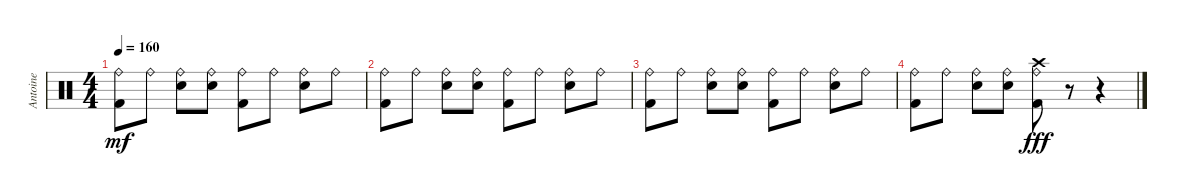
\track ("Antoine" "Antoine") {instrument percussion}
\staff {score}
\articulation defaults
\ts (4 4)
\tempo 160
\clef neutral
\ks c
("Kick (hit) 2" "Ride (bell)").8{dy mf} "Ride (bell)".8 ("Electric Snare (hit)" "Ride (bell)").8 ("Electric Snare (hit)" "Ride (bell)").8 ("Kick (hit) 2" "Ride (bell)").8 "Ride (bell)".8 ("Electric Snare (hit)" "Ride (bell)").8 "Ride (bell)".8 |
("Kick (hit) 2" "Ride (bell)").8 "Ride (bell)".8 ("Electric Snare (hit)" "Ride (bell)").8 ("Electric Snare (hit)" "Ride (bell)").8 ("Kick (hit) 2" "Ride (bell)").8 "Ride (bell)".8 ("Electric Snare (hit)" "Ride (bell)").8 "Ride (bell)".8 |
("Kick (hit) 2" "Ride (bell)").8 "Ride (bell)".8 ("Electric Snare (hit)" "Ride (bell)").8 ("Electric Snare (hit)" "Ride (bell)").8 ("Kick (hit) 2" "Ride (bell)").8 "Ride (bell)".8 ("Electric Snare (hit)" "Ride (bell)").8 "Ride (bell)".8 |
("Kick (hit) 2" "Ride (bell)").8 "Ride (bell)".8 ("Electric Snare (hit)" "Ride (bell)").8 ("Electric Snare (hit)" "Ride (bell)").8 ("Kick (hit) 2" "Ride (bell)" "Crash high (hit)").8{dy fff} r.8 r.4
